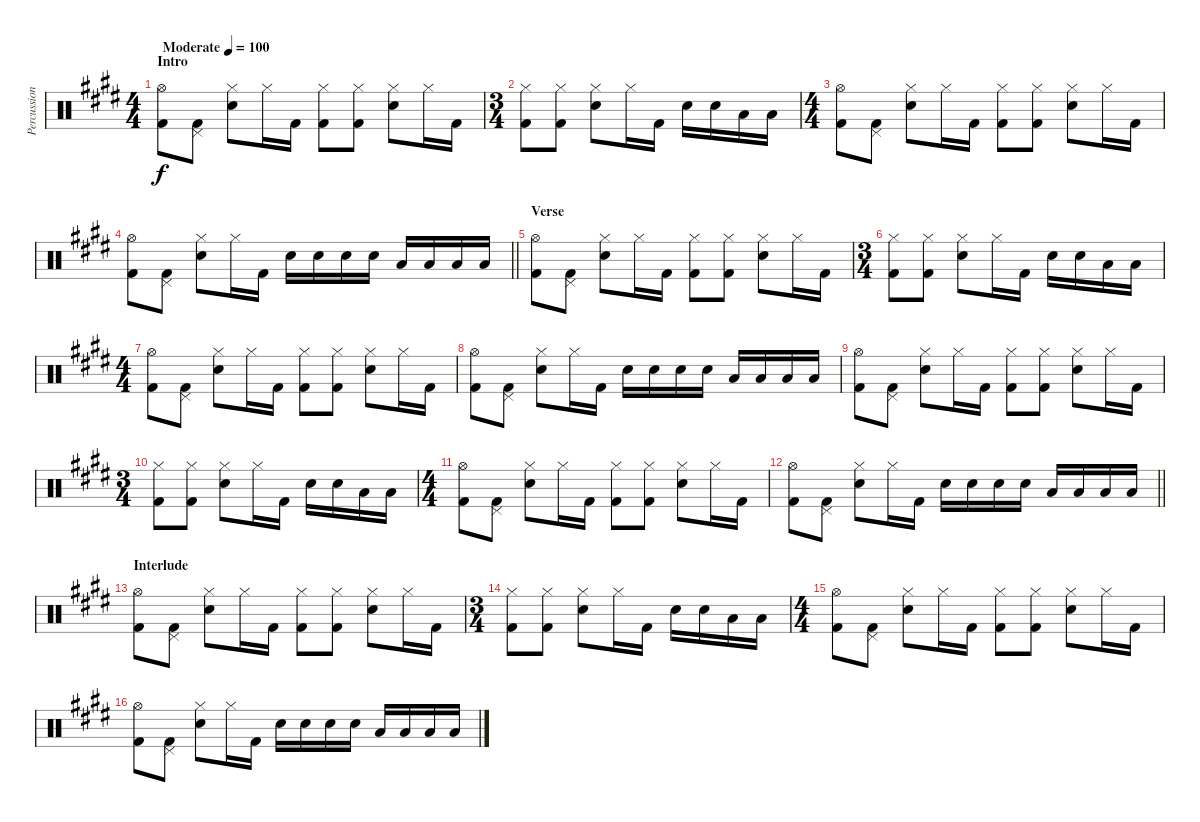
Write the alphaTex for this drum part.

\track ("Percussion" "Percussion") {instrument percussion}
\staff {score}
\articulation defaults
\ts (4 4)
\section ("" "Intro")
\tempo (100 "Moderate")
\clef neutral
\ks e
("Hi-Hat (open)" "Kick (hit) 2").8{dy f} ("Pedal Hi-Hat (hit)" "Kick (hit) 2").8 ("Hi-Hat (closed)" "Electric Snare (hit)").8 "Hi-Hat (closed)".16 "Kick (hit) 2".16 ("Hi-Hat (closed)" "Kick (hit) 2").8 ("Hi-Hat (closed)" "Kick (hit) 2").8 ("Hi-Hat (closed)" "Electric Snare (hit)").8 "Hi-Hat (closed)".16 "Kick (hit) 2".16 |
\ts (3 4)
("Hi-Hat (closed)" "Kick (hit) 2").8 ("Hi-Hat (closed)" "Kick (hit) 2").8 ("Electric Snare (hit)" "Hi-Hat (closed)").8 "Hi-Hat (closed)".16 "Kick (hit) 2".16 "Electric Snare (hit)".16 "Electric Snare (hit)".16 "Low Tom (hit)".16 "Low Tom (hit)".16 |
\ts (4 4)
("Hi-Hat (open)" "Kick (hit) 2").8 ("Pedal Hi-Hat (hit)" "Kick (hit) 2").8 ("Hi-Hat (closed)" "Electric Snare (hit)").8 "Hi-Hat (closed)".16 "Kick (hit) 2".16 ("Hi-Hat (closed)" "Kick (hit) 2").8 ("Hi-Hat (closed)" "Kick (hit) 2").8 ("Hi-Hat (closed)" "Electric Snare (hit)").8 "Hi-Hat (closed)".16 "Kick (hit) 2".16 |
\barLineRight lightlight
("Hi-Hat (open)" "Kick (hit) 2").8 ("Pedal Hi-Hat (hit)" "Kick (hit) 2").8 ("Hi-Hat (closed)" "Electric Snare (hit)").8 "Hi-Hat (closed)".16 "Kick (hit) 2".16 "Electric Snare (hit)".16 "Electric Snare (hit)".16 "Electric Snare (hit)".16 "Electric Snare (hit)".16 "Low Tom (hit)".16 "Low Tom (hit)".16 "Low Tom (hit)".16 "Low Tom (hit)".16 |
\section ("" "Verse")
("Hi-Hat (open)" "Kick (hit) 2").8 ("Pedal Hi-Hat (hit)" "Kick (hit) 2").8 ("Hi-Hat (closed)" "Electric Snare (hit)").8 "Hi-Hat (closed)".16 "Kick (hit) 2".16 ("Hi-Hat (closed)" "Kick (hit) 2").8 ("Hi-Hat (closed)" "Kick (hit) 2").8 ("Hi-Hat (closed)" "Electric Snare (hit)").8 "Hi-Hat (closed)".16 "Kick (hit) 2".16 |
\ts (3 4)
("Hi-Hat (closed)" "Kick (hit) 2").8 ("Hi-Hat (closed)" "Kick (hit) 2").8 ("Electric Snare (hit)" "Hi-Hat (closed)").8 "Hi-Hat (closed)".16 "Kick (hit) 2".16 "Electric Snare (hit)".16 "Electric Snare (hit)".16 "Low Tom (hit)".16 "Low Tom (hit)".16 |
\ts (4 4)
("Hi-Hat (open)" "Kick (hit) 2").8 ("Pedal Hi-Hat (hit)" "Kick (hit) 2").8 ("Hi-Hat (closed)" "Electric Snare (hit)").8 "Hi-Hat (closed)".16 "Kick (hit) 2".16 ("Hi-Hat (closed)" "Kick (hit) 2").8 ("Hi-Hat (closed)" "Kick (hit) 2").8 ("Hi-Hat (closed)" "Electric Snare (hit)").8 "Hi-Hat (closed)".16 "Kick (hit) 2".16 |
("Hi-Hat (open)" "Kick (hit) 2").8 ("Pedal Hi-Hat (hit)" "Kick (hit) 2").8 ("Hi-Hat (closed)" "Electric Snare (hit)").8 "Hi-Hat (closed)".16 "Kick (hit) 2".16 "Electric Snare (hit)".16 "Electric Snare (hit)".16 "Electric Snare (hit)".16 "Electric Snare (hit)".16 "Low Tom (hit)".16 "Low Tom (hit)".16 "Low Tom (hit)".16 "Low Tom (hit)".16 |
("Hi-Hat (open)" "Kick (hit) 2").8 ("Pedal Hi-Hat (hit)" "Kick (hit) 2").8 ("Hi-Hat (closed)" "Electric Snare (hit)").8 "Hi-Hat (closed)".16 "Kick (hit) 2".16 ("Hi-Hat (closed)" "Kick (hit) 2").8 ("Hi-Hat (closed)" "Kick (hit) 2").8 ("Hi-Hat (closed)" "Electric Snare (hit)").8 "Hi-Hat (closed)".16 "Kick (hit) 2".16 |
\ts (3 4)
("Hi-Hat (closed)" "Kick (hit) 2").8 ("Hi-Hat (closed)" "Kick (hit) 2").8 ("Electric Snare (hit)" "Hi-Hat (closed)").8 "Hi-Hat (closed)".16 "Kick (hit) 2".16 "Electric Snare (hit)".16 "Electric Snare (hit)".16 "Low Tom (hit)".16 "Low Tom (hit)".16 |
\ts (4 4)
("Hi-Hat (open)" "Kick (hit) 2").8 ("Pedal Hi-Hat (hit)" "Kick (hit) 2").8 ("Hi-Hat (closed)" "Electric Snare (hit)").8 "Hi-Hat (closed)".16 "Kick (hit) 2".16 ("Hi-Hat (closed)" "Kick (hit) 2").8 ("Hi-Hat (closed)" "Kick (hit) 2").8 ("Hi-Hat (closed)" "Electric Snare (hit)").8 "Hi-Hat (closed)".16 "Kick (hit) 2".16 |
\barLineRight lightlight
("Hi-Hat (open)" "Kick (hit) 2").8 ("Pedal Hi-Hat (hit)" "Kick (hit) 2").8 ("Hi-Hat (closed)" "Electric Snare (hit)").8 "Hi-Hat (closed)".16 "Kick (hit) 2".16 "Electric Snare (hit)".16 "Electric Snare (hit)".16 "Electric Snare (hit)".16 "Electric Snare (hit)".16 "Low Tom (hit)".16 "Low Tom (hit)".16 "Low Tom (hit)".16 "Low Tom (hit)".16 |
\section ("" "Interlude")
("Hi-Hat (open)" "Kick (hit) 2").8 ("Pedal Hi-Hat (hit)" "Kick (hit) 2").8 ("Hi-Hat (closed)" "Electric Snare (hit)").8 "Hi-Hat (closed)".16 "Kick (hit) 2".16 ("Hi-Hat (closed)" "Kick (hit) 2").8 ("Hi-Hat (closed)" "Kick (hit) 2").8 ("Hi-Hat (closed)" "Electric Snare (hit)").8 "Hi-Hat (closed)".16 "Kick (hit) 2".16 |
\ts (3 4)
("Hi-Hat (closed)" "Kick (hit) 2").8 ("Hi-Hat (closed)" "Kick (hit) 2").8 ("Electric Snare (hit)" "Hi-Hat (closed)").8 "Hi-Hat (closed)".16 "Kick (hit) 2".16 "Electric Snare (hit)".16 "Electric Snare (hit)".16 "Low Tom (hit)".16 "Low Tom (hit)".16 |
\ts (4 4)
("Hi-Hat (open)" "Kick (hit) 2").8 ("Pedal Hi-Hat (hit)" "Kick (hit) 2").8 ("Hi-Hat (closed)" "Electric Snare (hit)").8 "Hi-Hat (closed)".16 "Kick (hit) 2".16 ("Hi-Hat (closed)" "Kick (hit) 2").8 ("Hi-Hat (closed)" "Kick (hit) 2").8 ("Hi-Hat (closed)" "Electric Snare (hit)").8 "Hi-Hat (closed)".16 "Kick (hit) 2".16 |
("Hi-Hat (open)" "Kick (hit) 2").8 ("Pedal Hi-Hat (hit)" "Kick (hit) 2").8 ("Hi-Hat (closed)" "Electric Snare (hit)").8 "Hi-Hat (closed)".16 "Kick (hit) 2".16 "Electric Snare (hit)".16 "Electric Snare (hit)".16 "Electric Snare (hit)".16 "Electric Snare (hit)".16 "Low Tom (hit)".16 "Low Tom (hit)".16 "Low Tom (hit)".16 "Low Tom (hit)".16
